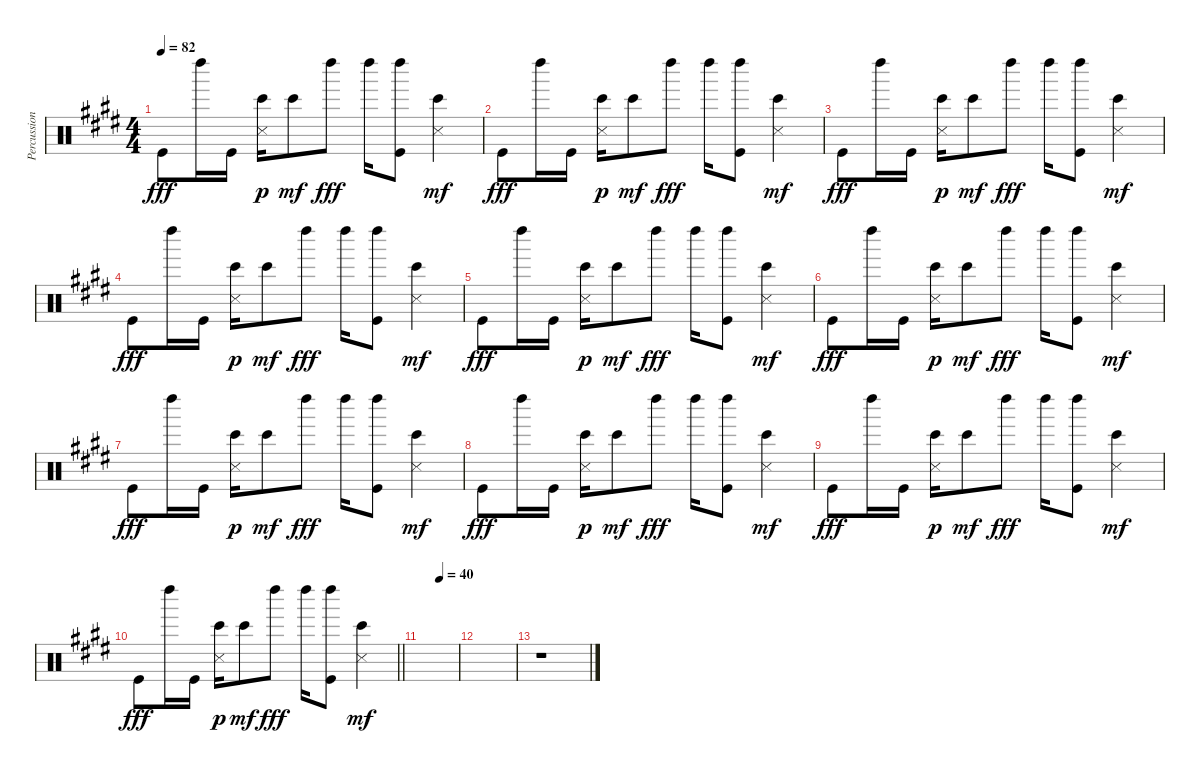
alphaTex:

\track ("Percussions" "Percussion") {instrument percussion}
\staff {score}
\articulation defaults
\ts (4 4)
\tempo 82
\clef neutral
\ks e "Kick (hit)".8{dy fff} "Left Maraca (hit)".16 "Kick (hit)".16
("Bongo High (hit)" "Metronome (hit)").16{dy p} "Bongo High (hit)".8{dy mf} "Left Maraca (hit)".8{dy fff} "Left Maraca (hit)".16 ("Left Maraca (hit)" "Kick (hit)").8 ("Bongo High (hit)" "Metronome (hit)").4{dy mf} |
"Kick (hit)".8{dy fff} "Left Maraca (hit)".16 "Kick (hit)".16 ("Bongo High (hit)" "Metronome (hit)").16{dy p} "Bongo High (hit)".8{dy mf} "Left Maraca (hit)".8{dy fff} "Left Maraca (hit)".16 ("Left Maraca (hit)" "Kick (hit)").8 ("Bongo High (hit)" "Metronome (hit)").4{dy mf} |
"Kick (hit)".8{dy fff} "Left Maraca (hit)".16 "Kick (hit)".16 ("Bongo High (hit)" "Metronome (hit)").16{dy p} "Bongo High (hit)".8{dy mf} "Left Maraca (hit)".8{dy fff} "Left Maraca (hit)".16 ("Left Maraca (hit)" "Kick (hit)").8 ("Bongo High (hit)" "Metronome (hit)").4{dy mf} |
"Kick (hit)".8{dy fff} "Left Maraca (hit)".16 "Kick (hit)".16 ("Bongo High (hit)" "Metronome (hit)").16{dy p} "Bongo High (hit)".8{dy mf} "Left Maraca (hit)".8{dy fff} "Left Maraca (hit)".16 ("Left Maraca (hit)" "Kick (hit)").8 ("Bongo High (hit)" "Metronome (hit)").4{dy mf} |
"Kick (hit)".8{dy fff} "Left Maraca (hit)".16 "Kick (hit)".16 ("Bongo High (hit)" "Metronome (hit)").16{dy p} "Bongo High (hit)".8{dy mf} "Left Maraca (hit)".8{dy fff} "Left Maraca (hit)".16 ("Left Maraca (hit)" "Kick (hit)").8 ("Bongo High (hit)" "Metronome (hit)").4{dy mf} |
"Kick (hit)".8{dy fff} "Left Maraca (hit)".16 "Kick (hit)".16 ("Bongo High (hit)" "Metronome (hit)").16{dy p} "Bongo High (hit)".8{dy mf} "Left Maraca (hit)".8{dy fff} "Left Maraca (hit)".16 ("Left Maraca (hit)" "Kick (hit)").8 ("Bongo High (hit)" "Metronome (hit)").4{dy mf} |
"Kick (hit)".8{dy fff} "Left Maraca (hit)".16 "Kick (hit)".16 ("Bongo High (hit)" "Metronome (hit)").16{dy p} "Bongo High (hit)".8{dy mf} "Left Maraca (hit)".8{dy fff} "Left Maraca (hit)".16 ("Left Maraca (hit)" "Kick (hit)").8 ("Bongo High (hit)" "Metronome (hit)").4{dy mf} |
"Kick (hit)".8{dy fff} "Left Maraca (hit)".16 "Kick (hit)".16 ("Bongo High (hit)" "Metronome (hit)").16{dy p} "Bongo High (hit)".8{dy mf} "Left Maraca (hit)".8{dy fff} "Left Maraca (hit)".16 ("Left Maraca (hit)" "Kick (hit)").8 ("Bongo High (hit)" "Metronome (hit)").4{dy mf} |
"Kick (hit)".8{dy fff} "Left Maraca (hit)".16 "Kick (hit)".16 ("Bongo High (hit)" "Metronome (hit)").16{dy p} "Bongo High (hit)".8{dy mf} "Left Maraca (hit)".8{dy fff} "Left Maraca (hit)".16 ("Left Maraca (hit)" "Kick (hit)").8 ("Bongo High (hit)" "Metronome (hit)").4{dy mf} |
\barLineRight lightlight "Kick (hit)".8{dy fff} "Left Maraca (hit)".16 "Kick (hit)".16
("Bongo High (hit)" "Metronome (hit)").16{dy p} "Bongo High (hit)".8{dy mf} "Left Maraca (hit)".8{dy fff} "Left Maraca (hit)".16 ("Left Maraca (hit)" "Kick (hit)").8 ("Bongo High (hit)" "Metronome (hit)").4{dy mf} |
\tempo (40 0.5)
|
|
r.1
